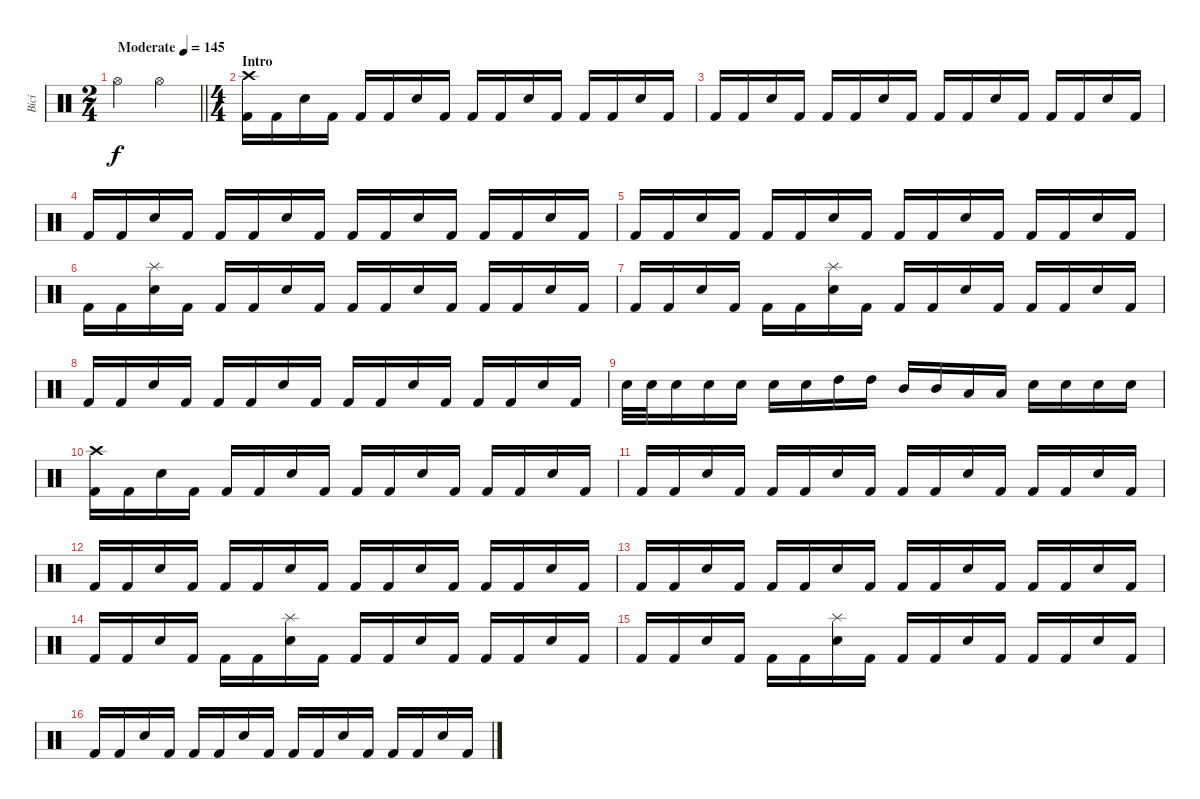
\track ("Bicí" "Bicí") {instrument percussion}
\staff {score}
\articulation defaults
\ts (2 4)
\tempo (145 "Moderate")
\clef neutral
\barLineRight lightlight
\ks c "Hi-Hat (open)".4{dy f} "Hi-Hat (open)".4
|
\ts (4 4)
\section ("" "Intro")
("Kick (hit) 2" "Crash high (hit)").16 "Kick (hit) 2".16 "Electric Snare (hit)".16 "Kick (hit) 2".16 "Kick (hit) 2".16 "Kick (hit) 2".16 "Electric Snare (hit)".16 "Kick (hit) 2".16 "Kick (hit) 2".16 "Kick (hit) 2".16 "Electric Snare (hit)".16 "Kick (hit) 2".16 "Kick (hit) 2".16 "Kick (hit) 2".16 "Electric Snare (hit)".16 "Kick (hit) 2".16 |
"Kick (hit) 2".16 "Kick (hit) 2".16 "Electric Snare (hit)".16 "Kick (hit) 2".16 "Kick (hit) 2".16 "Kick (hit) 2".16 "Electric Snare (hit)".16 "Kick (hit) 2".16 "Kick (hit) 2".16 "Kick (hit) 2".16 "Electric Snare (hit)".16 "Kick (hit) 2".16 "Kick (hit) 2".16 "Kick (hit) 2".16 "Electric Snare (hit)".16 "Kick (hit) 2".16 |
"Kick (hit) 2".16 "Kick (hit) 2".16 "Electric Snare (hit)".16 "Kick (hit) 2".16 "Kick (hit) 2".16 "Kick (hit) 2".16 "Electric Snare (hit)".16 "Kick (hit) 2".16 "Kick (hit) 2".16 "Kick (hit) 2".16 "Electric Snare (hit)".16 "Kick (hit) 2".16 "Kick (hit) 2".16 "Kick (hit) 2".16 "Electric Snare (hit)".16 "Kick (hit) 2".16 |
"Kick (hit) 2".16 "Kick (hit) 2".16 "Electric Snare (hit)".16 "Kick (hit) 2".16 "Kick (hit) 2".16 "Kick (hit) 2".16 "Electric Snare (hit)".16 "Kick (hit) 2".16 "Kick (hit) 2".16 "Kick (hit) 2".16 "Electric Snare (hit)".16 "Kick (hit) 2".16 "Kick (hit) 2".16 "Kick (hit) 2".16 "Electric Snare (hit)".16 "Kick (hit) 2".16 |
"Kick (hit) 2".16 "Kick (hit) 2".16 ("Electric Snare (hit)" "Splash (hit)").16 "Kick (hit) 2".16 "Kick (hit) 2".16 "Kick (hit) 2".16 "Electric Snare (hit)".16 "Kick (hit) 2".16 "Kick (hit) 2".16 "Kick (hit) 2".16 "Electric Snare (hit)".16 "Kick (hit) 2".16 "Kick (hit) 2".16 "Kick (hit) 2".16 "Electric Snare (hit)".16 "Kick (hit) 2".16 |
"Kick (hit) 2".16 "Kick (hit) 2".16 "Electric Snare (hit)".16 "Kick (hit) 2".16 "Kick (hit) 2".16 "Kick (hit) 2".16 ("Electric Snare (hit)" "Splash (hit)").16 "Kick (hit) 2".16 "Kick (hit) 2".16 "Kick (hit) 2".16 "Electric Snare (hit)".16 "Kick (hit) 2".16 "Kick (hit) 2".16 "Kick (hit) 2".16 "Electric Snare (hit)".16 "Kick (hit) 2".16 |
"Kick (hit) 2".16 "Kick (hit) 2".16 "Electric Snare (hit)".16 "Kick (hit) 2".16 "Kick (hit) 2".16 "Kick (hit) 2".16 "Electric Snare (hit)".16 "Kick (hit) 2".16 "Kick (hit) 2".16 "Kick (hit) 2".16 "Electric Snare (hit)".16 "Kick (hit) 2".16 "Kick (hit) 2".16 "Kick (hit) 2".16 "Electric Snare (hit)".16 "Kick (hit) 2".16 |
"Electric Snare (hit)".32 "Electric Snare (hit)".32 "Electric Snare (hit)".16 "Electric Snare (hit)".16 "Electric Snare (hit)".16 "Electric Snare (hit)".16 "Electric Snare (hit)".16 "High Tom (hit)".16 "High Tom (hit)".16 "Mid Tom (hit)".16 "Mid Tom (hit)".16 "Low Tom (hit)".16 "Low Tom (hit)".16 "Electric Snare (hit)".16 "Electric Snare (hit)".16 "Electric Snare (hit)".16 "Electric Snare (hit)".16 |
("Kick (hit) 2" "Crash high (hit)").16 "Kick (hit) 2".16 "Electric Snare (hit)".16 "Kick (hit) 2".16 "Kick (hit) 2".16 "Kick (hit) 2".16 "Electric Snare (hit)".16 "Kick (hit) 2".16 "Kick (hit) 2".16 "Kick (hit) 2".16 "Electric Snare (hit)".16 "Kick (hit) 2".16 "Kick (hit) 2".16 "Kick (hit) 2".16 "Electric Snare (hit)".16 "Kick (hit) 2".16 |
"Kick (hit) 2".16 "Kick (hit) 2".16 "Electric Snare (hit)".16 "Kick (hit) 2".16 "Kick (hit) 2".16 "Kick (hit) 2".16 "Electric Snare (hit)".16 "Kick (hit) 2".16 "Kick (hit) 2".16 "Kick (hit) 2".16 "Electric Snare (hit)".16 "Kick (hit) 2".16 "Kick (hit) 2".16 "Kick (hit) 2".16 "Electric Snare (hit)".16 "Kick (hit) 2".16 |
"Kick (hit) 2".16 "Kick (hit) 2".16 "Electric Snare (hit)".16 "Kick (hit) 2".16 "Kick (hit) 2".16 "Kick (hit) 2".16 "Electric Snare (hit)".16 "Kick (hit) 2".16 "Kick (hit) 2".16 "Kick (hit) 2".16 "Electric Snare (hit)".16 "Kick (hit) 2".16 "Kick (hit) 2".16 "Kick (hit) 2".16 "Electric Snare (hit)".16 "Kick (hit) 2".16 |
"Kick (hit) 2".16 "Kick (hit) 2".16 "Electric Snare (hit)".16 "Kick (hit) 2".16 "Kick (hit) 2".16 "Kick (hit) 2".16 "Electric Snare (hit)".16 "Kick (hit) 2".16 "Kick (hit) 2".16 "Kick (hit) 2".16 "Electric Snare (hit)".16 "Kick (hit) 2".16 "Kick (hit) 2".16 "Kick (hit) 2".16 "Electric Snare (hit)".16 "Kick (hit) 2".16 |
"Kick (hit) 2".16 "Kick (hit) 2".16 "Electric Snare (hit)".16 "Kick (hit) 2".16 "Kick (hit) 2".16 "Kick (hit) 2".16 ("Electric Snare (hit)" "Splash (hit)").16 "Kick (hit) 2".16 "Kick (hit) 2".16 "Kick (hit) 2".16 "Electric Snare (hit)".16 "Kick (hit) 2".16 "Kick (hit) 2".16 "Kick (hit) 2".16 "Electric Snare (hit)".16 "Kick (hit) 2".16 |
"Kick (hit) 2".16 "Kick (hit) 2".16 "Electric Snare (hit)".16 "Kick (hit) 2".16 "Kick (hit) 2".16 "Kick (hit) 2".16 ("Electric Snare (hit)" "Splash (hit)").16 "Kick (hit) 2".16 "Kick (hit) 2".16 "Kick (hit) 2".16 "Electric Snare (hit)".16 "Kick (hit) 2".16 "Kick (hit) 2".16 "Kick (hit) 2".16 "Electric Snare (hit)".16 "Kick (hit) 2".16 |
"Kick (hit) 2".16 "Kick (hit) 2".16 "Electric Snare (hit)".16 "Kick (hit) 2".16 "Kick (hit) 2".16 "Kick (hit) 2".16 "Electric Snare (hit)".16 "Kick (hit) 2".16 "Kick (hit) 2".16 "Kick (hit) 2".16 "Electric Snare (hit)".16 "Kick (hit) 2".16 "Kick (hit) 2".16 "Kick (hit) 2".16 "Electric Snare (hit)".16 "Kick (hit) 2".16
